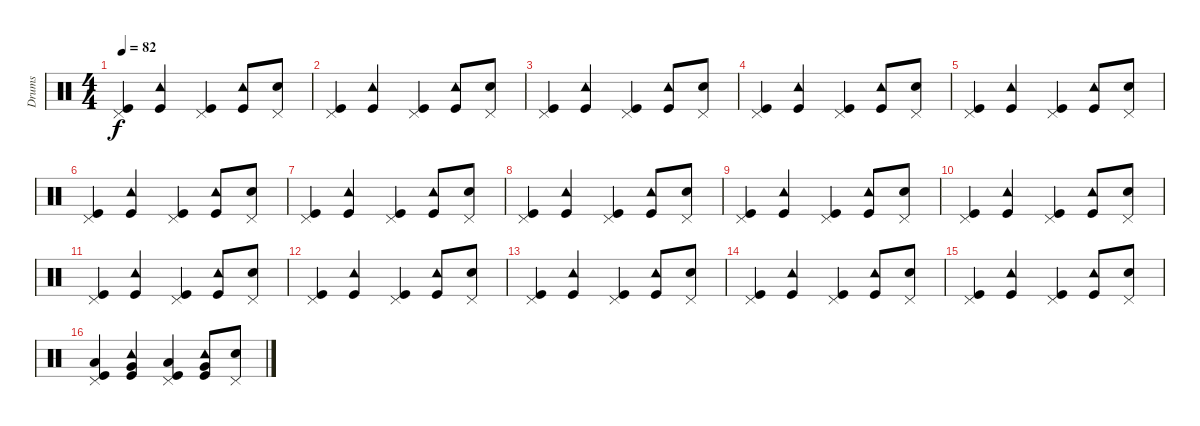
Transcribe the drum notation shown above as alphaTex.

\track ("Drums" "Drums") {instrument percussion}
\staff {score}
\articulation defaults
\ts (4 4)
\tempo 82
\clef neutral
\ks c
("Pedal Hi-Hat (hit)" "Kick (hit)").4{dy f} ("Tambourine (hit)" "Kick (hit)").4 ("Pedal Hi-Hat (hit)" "Kick (hit)").4 ("Tambourine (hit)" "Kick (hit)").8 ("Pedal Hi-Hat (hit)" "Electric Snare (hit)").8 |
("Pedal Hi-Hat (hit)" "Kick (hit)").4 ("Tambourine (hit)" "Kick (hit)").4 ("Pedal Hi-Hat (hit)" "Kick (hit)").4 ("Tambourine (hit)" "Kick (hit)").8 ("Pedal Hi-Hat (hit)" "Electric Snare (hit)").8 |
("Pedal Hi-Hat (hit)" "Kick (hit)").4 ("Tambourine (hit)" "Kick (hit)").4 ("Pedal Hi-Hat (hit)" "Kick (hit)").4 ("Tambourine (hit)" "Kick (hit)").8 ("Pedal Hi-Hat (hit)" "Electric Snare (hit)").8 |
("Pedal Hi-Hat (hit)" "Kick (hit)").4 ("Tambourine (hit)" "Kick (hit)").4 ("Pedal Hi-Hat (hit)" "Kick (hit)").4 ("Tambourine (hit)" "Kick (hit)").8 ("Pedal Hi-Hat (hit)" "Electric Snare (hit)").8 |
("Pedal Hi-Hat (hit)" "Kick (hit)").4 ("Tambourine (hit)" "Kick (hit)").4 ("Pedal Hi-Hat (hit)" "Kick (hit)").4 ("Tambourine (hit)" "Kick (hit)").8 ("Pedal Hi-Hat (hit)" "Electric Snare (hit)").8 |
("Pedal Hi-Hat (hit)" "Kick (hit)").4 ("Tambourine (hit)" "Kick (hit)").4 ("Pedal Hi-Hat (hit)" "Kick (hit)").4 ("Tambourine (hit)" "Kick (hit)").8 ("Pedal Hi-Hat (hit)" "Electric Snare (hit)").8 |
("Pedal Hi-Hat (hit)" "Kick (hit)").4 ("Tambourine (hit)" "Kick (hit)").4 ("Pedal Hi-Hat (hit)" "Kick (hit)").4 ("Tambourine (hit)" "Kick (hit)").8 ("Pedal Hi-Hat (hit)" "Electric Snare (hit)").8 |
("Pedal Hi-Hat (hit)" "Kick (hit)").4 ("Tambourine (hit)" "Kick (hit)").4 ("Pedal Hi-Hat (hit)" "Kick (hit)").4 ("Tambourine (hit)" "Kick (hit)").8 ("Pedal Hi-Hat (hit)" "Electric Snare (hit)").8 |
("Pedal Hi-Hat (hit)" "Kick (hit)").4 ("Tambourine (hit)" "Kick (hit)").4 ("Pedal Hi-Hat (hit)" "Kick (hit)").4 ("Tambourine (hit)" "Kick (hit)").8 ("Pedal Hi-Hat (hit)" "Electric Snare (hit)").8 |
("Pedal Hi-Hat (hit)" "Kick (hit)").4 ("Tambourine (hit)" "Kick (hit)").4 ("Pedal Hi-Hat (hit)" "Kick (hit)").4 ("Tambourine (hit)" "Kick (hit)").8 ("Pedal Hi-Hat (hit)" "Electric Snare (hit)").8 |
("Pedal Hi-Hat (hit)" "Kick (hit)").4 ("Tambourine (hit)" "Kick (hit)").4 ("Pedal Hi-Hat (hit)" "Kick (hit)").4 ("Tambourine (hit)" "Kick (hit)").8 ("Pedal Hi-Hat (hit)" "Electric Snare (hit)").8 |
("Pedal Hi-Hat (hit)" "Kick (hit)").4 ("Tambourine (hit)" "Kick (hit)").4 ("Pedal Hi-Hat (hit)" "Kick (hit)").4 ("Tambourine (hit)" "Kick (hit)").8 ("Pedal Hi-Hat (hit)" "Electric Snare (hit)").8 |
("Pedal Hi-Hat (hit)" "Kick (hit)").4 ("Tambourine (hit)" "Kick (hit)").4 ("Pedal Hi-Hat (hit)" "Kick (hit)").4 ("Tambourine (hit)" "Kick (hit)").8 ("Pedal Hi-Hat (hit)" "Electric Snare (hit)").8 |
("Pedal Hi-Hat (hit)" "Kick (hit)").4 ("Tambourine (hit)" "Kick (hit)").4 ("Pedal Hi-Hat (hit)" "Kick (hit)").4 ("Tambourine (hit)" "Kick (hit)").8 ("Pedal Hi-Hat (hit)" "Electric Snare (hit)").8 |
("Pedal Hi-Hat (hit)" "Kick (hit)").4 ("Tambourine (hit)" "Kick (hit)").4 ("Pedal Hi-Hat (hit)" "Kick (hit)").4 ("Tambourine (hit)" "Kick (hit)").8 ("Pedal Hi-Hat (hit)" "Electric Snare (hit)").8 |
("Pedal Hi-Hat (hit)" "Low Tom (hit)" "Kick (hit)").4 ("Tambourine (hit)" "Very Low Tom (hit)" "Kick (hit)").4 ("Pedal Hi-Hat (hit)" "Low Tom (hit)" "Kick (hit)").4 ("Tambourine (hit)" "Very Low Tom (hit)" "Kick (hit)").8 ("Pedal Hi-Hat (hit)" "Electric Snare (hit)").8
